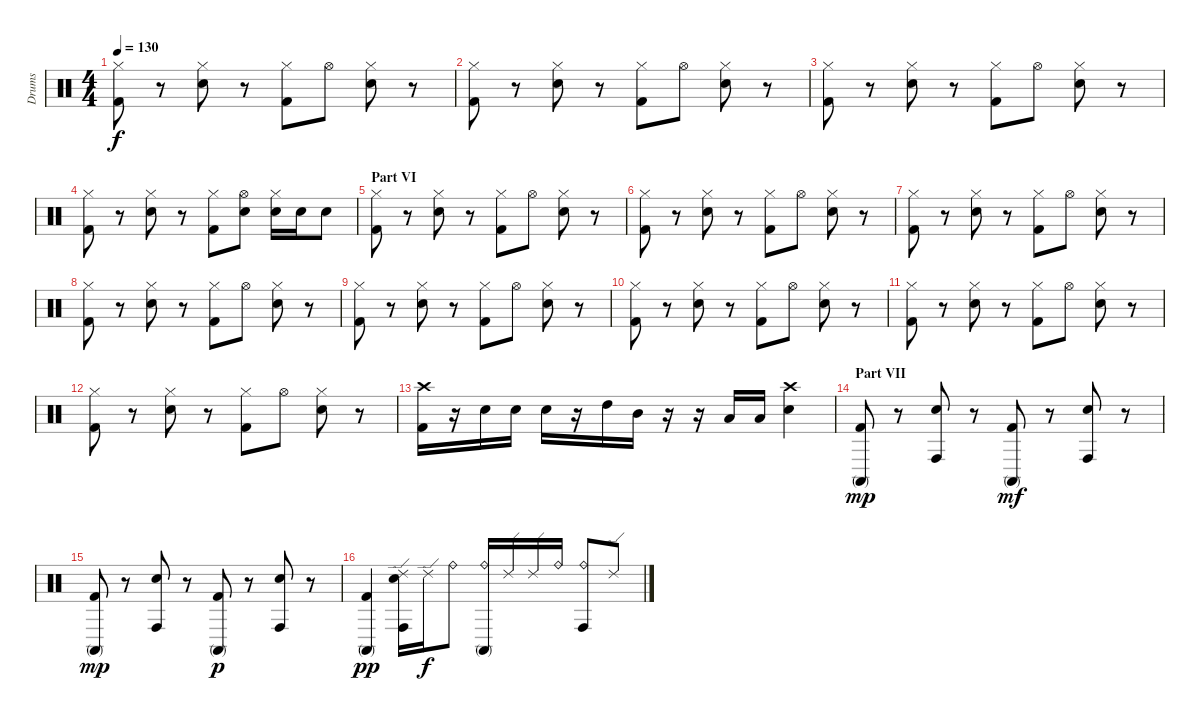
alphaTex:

\track ("Drums" "Drums") {instrument percussion}
\staff {score}
\articulation defaults
\ts (4 4)
\tempo 130
\clef neutral
\ks c
("Kick (hit) 2" "Hi-Hat (closed)").8{dy f} r.8 ("Snare (hit) 2" "Hi-Hat (closed)").8 r.8 ("Kick (hit) 2" "Hi-Hat (closed)").8 "Hi-Hat (open)".8 ("Snare (hit) 2" "Hi-Hat (closed)").8 r.8 |
("Kick (hit) 2" "Hi-Hat (closed)").8 r.8 ("Snare (hit) 2" "Hi-Hat (closed)").8 r.8 ("Kick (hit) 2" "Hi-Hat (closed)").8 "Hi-Hat (open)".8 ("Snare (hit) 2" "Hi-Hat (closed)").8 r.8 |
("Kick (hit) 2" "Hi-Hat (closed)").8 r.8 ("Snare (hit) 2" "Hi-Hat (closed)").8 r.8 ("Kick (hit) 2" "Hi-Hat (closed)").8 "Hi-Hat (open)".8 ("Snare (hit) 2" "Hi-Hat (closed)").8 r.8 |
("Kick (hit) 2" "Hi-Hat (closed)").8 r.8 ("Snare (hit) 2" "Hi-Hat (closed)").8 r.8 ("Kick (hit) 2" "Hi-Hat (closed)").8 ("Electric Snare (hit)" "Hi-Hat (open)").8 ("Snare (hit) 2" "Hi-Hat (closed)").16 "Electric Snare (hit)".16 "Electric Snare (hit)".8 |
\section ("" "Part VI")
("Kick (hit) 2" "Hi-Hat (closed)").8 r.8 ("Snare (hit) 2" "Hi-Hat (closed)").8 r.8 ("Kick (hit) 2" "Hi-Hat (closed)").8 "Hi-Hat (open)".8 ("Snare (hit) 2" "Hi-Hat (closed)").8 r.8 |
("Kick (hit) 2" "Hi-Hat (closed)").8 r.8 ("Snare (hit) 2" "Hi-Hat (closed)").8 r.8 ("Kick (hit) 2" "Hi-Hat (closed)").8 "Hi-Hat (open)".8 ("Snare (hit) 2" "Hi-Hat (closed)").8 r.8 |
("Kick (hit) 2" "Hi-Hat (closed)").8 r.8 ("Snare (hit) 2" "Hi-Hat (closed)").8 r.8 ("Kick (hit) 2" "Hi-Hat (closed)").8 "Hi-Hat (open)".8 ("Snare (hit) 2" "Hi-Hat (closed)").8 r.8 |
("Kick (hit) 2" "Hi-Hat (closed)").8 r.8 ("Snare (hit) 2" "Hi-Hat (closed)").8 r.8 ("Kick (hit) 2" "Hi-Hat (closed)").8 "Hi-Hat (open)".8 ("Snare (hit) 2" "Hi-Hat (closed)").8 r.8 |
("Kick (hit) 2" "Hi-Hat (closed)").8 r.8 ("Snare (hit) 2" "Hi-Hat (closed)").8 r.8 ("Kick (hit) 2" "Hi-Hat (closed)").8 "Hi-Hat (open)".8 ("Snare (hit) 2" "Hi-Hat (closed)").8 r.8 |
("Kick (hit) 2" "Hi-Hat (closed)").8 r.8 ("Snare (hit) 2" "Hi-Hat (closed)").8 r.8 ("Kick (hit) 2" "Hi-Hat (closed)").8 "Hi-Hat (open)".8 ("Snare (hit) 2" "Hi-Hat (closed)").8 r.8 |
("Kick (hit) 2" "Hi-Hat (closed)").8 r.8 ("Snare (hit) 2" "Hi-Hat (closed)").8 r.8 ("Kick (hit) 2" "Hi-Hat (closed)").8 "Hi-Hat (open)".8 ("Snare (hit) 2" "Hi-Hat (closed)").8 r.8 |
("Kick (hit) 2" "Hi-Hat (closed)").8 r.8 ("Snare (hit) 2" "Hi-Hat (closed)").8 r.8 ("Kick (hit) 2" "Hi-Hat (closed)").8 "Hi-Hat (open)".8 ("Snare (hit) 2" "Hi-Hat (closed)").8 r.8 |
("Kick (hit) 2" "Crash high (hit)").16 r.16 "Snare (hit) 2".16 "Snare (hit) 2".16 "Snare (hit) 2".16 r.16 "High Tom (hit)".16 "Mid Tom (hit)".16 r.16 r.16 "Low Tom (hit)".16 "Low Tom (hit)".16 ("Snare (hit) 2" "Crash high (hit)").4 |
\section ("" "Part VII")
("Kick (hit) 2" "Conga high (mute)").8{dy mp} r.8 ("Conga high (hit)" "Snare (hit) 2").8 r.8 ("Kick (hit) 2" "Conga high (mute)").8{dy mf} r.8 ("Conga high (hit)" "Snare (hit) 2").8 r.8 |
("Kick (hit) 2" "Conga high (mute)").8{dy mp} r.8 ("Conga high (hit)" "Snare (hit) 2").8 r.8 ("Kick (hit) 2" "Conga high (mute)").8{dy p} r.8 ("Conga high (hit)" "Snare (hit) 2").8 r.8 |
("Kick (hit) 2" "Conga high (mute)").4{dy pp} ("Conga high (hit)" "Ride (edge) 2" "Snare (hit) 2").16 "Ride (edge) 2".16{dy f} "Ride (bell)".8 ("Ride (bell)" "Conga high (mute)").16 "Ride (edge) 2".16 "Ride (edge) 2".16 "Ride (bell)".16 ("Ride (bell)" "Conga high (hit)").8 "Ride (edge) 2".8
